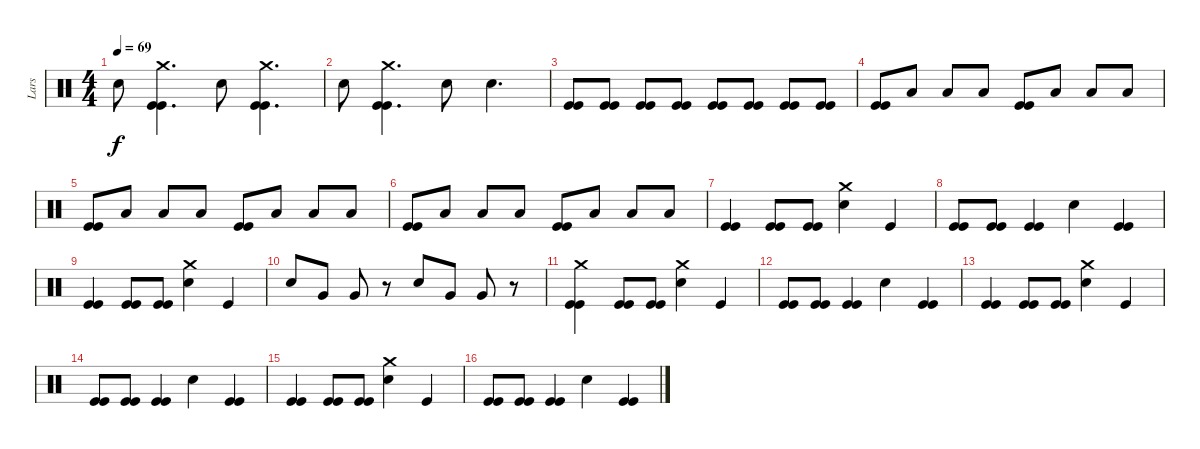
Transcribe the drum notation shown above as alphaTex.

\track ("Lars" "Lars") {instrument percussion}
\staff {score}
\articulation defaults
\ts (4 4)
\tempo 69
\clef neutral
\ks c "Electric Snare (hit)".8{dy f}
("Kick (hit)" "Kick (hit)" "Crash medium (hit)").4{d} "Electric Snare (hit)".8 ("Kick (hit)" "Kick (hit)" "Crash medium (hit)").4{d} |
"Electric Snare (hit)".8 ("Kick (hit)" "Kick (hit)" "Crash medium (hit)").4{d} "Electric Snare (hit)".8 "Electric Snare (hit)".4{d} |
("Kick (hit)" "Kick (hit)").8 ("Kick (hit)" "Kick (hit)").8 ("Kick (hit)" "Kick (hit)").8 ("Kick (hit)" "Kick (hit)").8 ("Kick (hit)" "Kick (hit)").8 ("Kick (hit)" "Kick (hit)").8 ("Kick (hit)" "Kick (hit)").8 ("Kick (hit)" "Kick (hit)").8 |
("Kick (hit)" "Kick (hit)").8 "Low Floor Tom (hit)".8 "Low Floor Tom (hit)".8 "Low Floor Tom (hit)".8 ("Kick (hit)" "Kick (hit)").8 "Low Floor Tom (hit)".8 "Low Floor Tom (hit)".8 "Low Floor Tom (hit)".8 |
("Kick (hit)" "Kick (hit)").8 "Low Floor Tom (hit)".8 "Low Floor Tom (hit)".8 "Low Floor Tom (hit)".8 ("Kick (hit)" "Kick (hit)").8 "Low Floor Tom (hit)".8 "Low Floor Tom (hit)".8 "Low Floor Tom (hit)".8 |
("Kick (hit)" "Kick (hit)").8 "Low Floor Tom (hit)".8 "Low Floor Tom (hit)".8 "Low Floor Tom (hit)".8 ("Kick (hit)" "Kick (hit)").8 "Low Floor Tom (hit)".8 "Low Floor Tom (hit)".8 "Low Floor Tom (hit)".8 |
("Kick (hit)" "Kick (hit)").4 ("Kick (hit)" "Kick (hit)").8 ("Kick (hit)" "Kick (hit)").8 ("Electric Snare (hit)" "Crash medium (hit)").4 "Kick (hit)".4 |
("Kick (hit)" "Kick (hit)").8 ("Kick (hit)" "Kick (hit)").8 ("Kick (hit)" "Kick (hit)").4 "Electric Snare (hit)".4 ("Kick (hit)" "Kick (hit)").4 |
("Kick (hit)" "Kick (hit)").4 ("Kick (hit)" "Kick (hit)").8 ("Kick (hit)" "Kick (hit)").8 ("Electric Snare (hit)" "Crash medium (hit)").4 "Kick (hit)".4 |
"Electric Snare (hit)".8 "Very Low Tom (hit)".8 "Very Low Tom (hit)".8 r.8 "Electric Snare (hit)".8 "Very Low Tom (hit)".8 "Very Low Tom (hit)".8 r.8 |
("Kick (hit)" "Kick (hit)" "Crash medium (hit)").4 ("Kick (hit)" "Kick (hit)").8 ("Kick (hit)" "Kick (hit)").8 ("Electric Snare (hit)" "Crash medium (hit)").4 "Kick (hit)".4 |
("Kick (hit)" "Kick (hit)").8 ("Kick (hit)" "Kick (hit)").8 ("Kick (hit)" "Kick (hit)").4 "Electric Snare (hit)".4 ("Kick (hit)" "Kick (hit)").4 |
("Kick (hit)" "Kick (hit)").4 ("Kick (hit)" "Kick (hit)").8 ("Kick (hit)" "Kick (hit)").8 ("Electric Snare (hit)" "Crash medium (hit)").4 "Kick (hit)".4 |
("Kick (hit)" "Kick (hit)").8 ("Kick (hit)" "Kick (hit)").8 ("Kick (hit)" "Kick (hit)").4 "Electric Snare (hit)".4 ("Kick (hit)" "Kick (hit)").4 |
("Kick (hit)" "Kick (hit)").4 ("Kick (hit)" "Kick (hit)").8 ("Kick (hit)" "Kick (hit)").8 ("Electric Snare (hit)" "Crash medium (hit)").4 "Kick (hit)".4 |
("Kick (hit)" "Kick (hit)").8 ("Kick (hit)" "Kick (hit)").8 ("Kick (hit)" "Kick (hit)").4 "Electric Snare (hit)".4 ("Kick (hit)" "Kick (hit)").4
